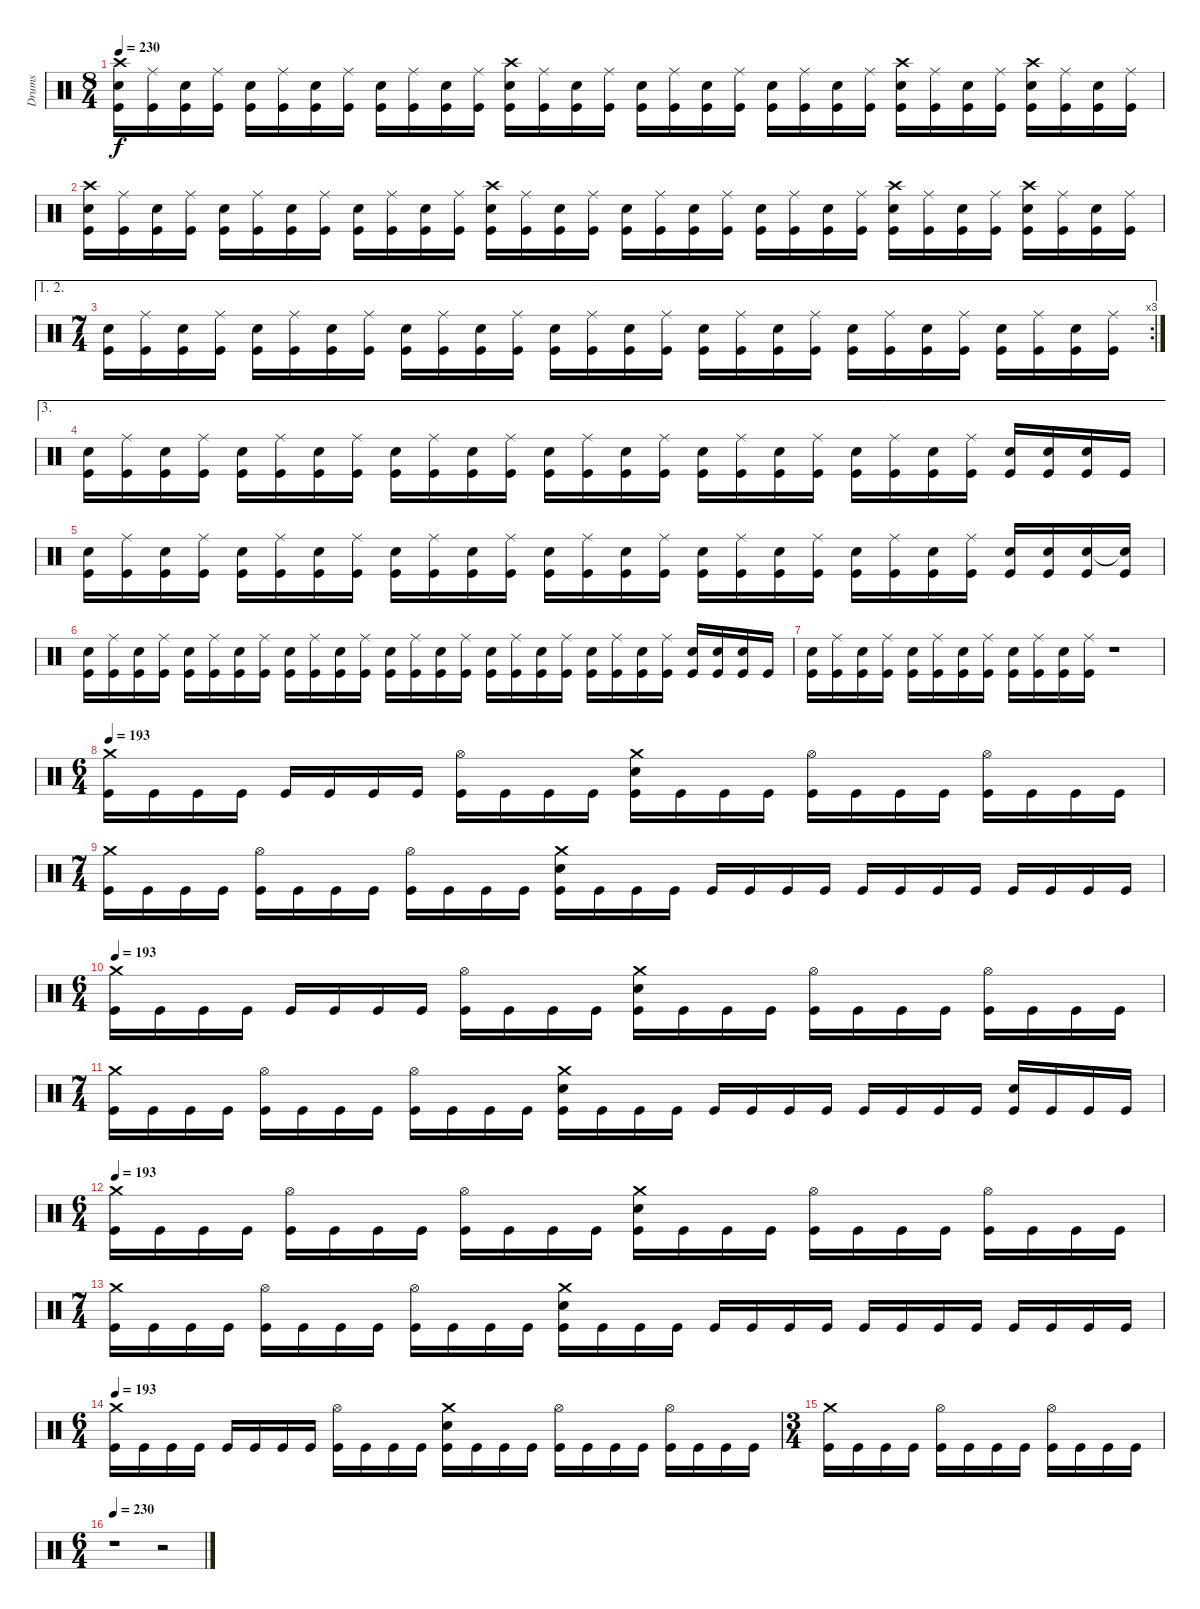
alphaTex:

\track ("Drums" "Drums") {instrument percussion}
\staff {score}
\articulation defaults
\ts (8 4)
\tempo 230
\clef neutral
\ks c
("Crash high (hit)" "Electric Snare (hit)" "Kick (hit)").16{dy f} ("Ride (middle)" "Kick (hit)").16 ("Electric Snare (hit)" "Kick (hit)").16 ("Ride (middle)" "Kick (hit)").16 ("Electric Snare (hit)" "Kick (hit)").16 ("Ride (middle)" "Kick (hit)").16 ("Electric Snare (hit)" "Kick (hit)").16 ("Ride (middle)" "Kick (hit)").16 ("Electric Snare (hit)" "Kick (hit)").16 ("Ride (middle)" "Kick (hit)").16 ("Electric Snare (hit)" "Kick (hit)").16 ("Ride (middle)" "Kick (hit)").16 ("Crash high (hit)" "Electric Snare (hit)" "Kick (hit)").16 ("Ride (middle)" "Kick (hit)").16 ("Electric Snare (hit)" "Kick (hit)").16 ("Ride (middle)" "Kick (hit)").16 ("Electric Snare (hit)" "Kick (hit)").16 ("Ride (middle)" "Kick (hit)").16 ("Electric Snare (hit)" "Kick (hit)").16 ("Ride (middle)" "Kick (hit)").16 ("Electric Snare (hit)" "Kick (hit)").16 ("Ride (middle)" "Kick (hit)").16 ("Electric Snare (hit)" "Kick (hit)").16 ("Ride (middle)" "Kick (hit)").16 ("Crash high (hit)" "Electric Snare (hit)" "Kick (hit)").16 ("Ride (middle)" "Kick (hit)").16 ("Electric Snare (hit)" "Kick (hit)").16 ("Ride (middle)" "Kick (hit)").16 ("Crash high (hit)" "Electric Snare (hit)" "Kick (hit)").16 ("Ride (middle)" "Kick (hit)").16 ("Electric Snare (hit)" "Kick (hit)").16 ("Ride (middle)" "Kick (hit)").16 |
("Crash high (hit)" "Electric Snare (hit)" "Kick (hit)").16 ("Ride (middle)" "Kick (hit)").16 ("Electric Snare (hit)" "Kick (hit)").16 ("Ride (middle)" "Kick (hit)").16 ("Electric Snare (hit)" "Kick (hit)").16 ("Ride (middle)" "Kick (hit)").16 ("Electric Snare (hit)" "Kick (hit)").16 ("Ride (middle)" "Kick (hit)").16 ("Electric Snare (hit)" "Kick (hit)").16 ("Ride (middle)" "Kick (hit)").16 ("Electric Snare (hit)" "Kick (hit)").16 ("Ride (middle)" "Kick (hit)").16 ("Crash high (hit)" "Electric Snare (hit)" "Kick (hit)").16 ("Ride (middle)" "Kick (hit)").16 ("Electric Snare (hit)" "Kick (hit)").16 ("Ride (middle)" "Kick (hit)").16 ("Electric Snare (hit)" "Kick (hit)").16 ("Ride (middle)" "Kick (hit)").16 ("Electric Snare (hit)" "Kick (hit)").16 ("Ride (middle)" "Kick (hit)").16 ("Electric Snare (hit)" "Kick (hit)").16 ("Ride (middle)" "Kick (hit)").16 ("Electric Snare (hit)" "Kick (hit)").16 ("Ride (middle)" "Kick (hit)").16 ("Crash high (hit)" "Electric Snare (hit)" "Kick (hit)").16 ("Ride (middle)" "Kick (hit)").16 ("Electric Snare (hit)" "Kick (hit)").16 ("Ride (middle)" "Kick (hit)").16 ("Crash high (hit)" "Electric Snare (hit)" "Kick (hit)").16 ("Ride (middle)" "Kick (hit)").16 ("Electric Snare (hit)" "Kick (hit)").16 ("Ride (middle)" "Kick (hit)").16 |
\ae (1 2)
\rc 3
\ts (7 4)
("Electric Snare (hit)" "Kick (hit)").16 ("Ride (middle)" "Kick (hit)").16 ("Electric Snare (hit)" "Kick (hit)").16 ("Ride (middle)" "Kick (hit)").16 ("Electric Snare (hit)" "Kick (hit)").16 ("Ride (middle)" "Kick (hit)").16 ("Electric Snare (hit)" "Kick (hit)").16 ("Ride (middle)" "Kick (hit)").16 ("Electric Snare (hit)" "Kick (hit)").16 ("Ride (middle)" "Kick (hit)").16 ("Electric Snare (hit)" "Kick (hit)").16 ("Ride (middle)" "Kick (hit)").16 ("Electric Snare (hit)" "Kick (hit)").16 ("Ride (middle)" "Kick (hit)").16 ("Electric Snare (hit)" "Kick (hit)").16 ("Ride (middle)" "Kick (hit)").16 ("Electric Snare (hit)" "Kick (hit)").16 ("Ride (middle)" "Kick (hit)").16 ("Electric Snare (hit)" "Kick (hit)").16 ("Ride (middle)" "Kick (hit)").16 ("Electric Snare (hit)" "Kick (hit)").16 ("Ride (middle)" "Kick (hit)").16 ("Electric Snare (hit)" "Kick (hit)").16 ("Ride (middle)" "Kick (hit)").16 ("Electric Snare (hit)" "Kick (hit)").16 ("Ride (middle)" "Kick (hit)").16 ("Electric Snare (hit)" "Kick (hit)").16 ("Ride (middle)" "Kick (hit)").16 |
\ae 3
("Electric Snare (hit)" "Kick (hit)").16 ("Ride (middle)" "Kick (hit)").16 ("Electric Snare (hit)" "Kick (hit)").16 ("Ride (middle)" "Kick (hit)").16 ("Electric Snare (hit)" "Kick (hit)").16 ("Ride (middle)" "Kick (hit)").16 ("Electric Snare (hit)" "Kick (hit)").16 ("Ride (middle)" "Kick (hit)").16 ("Electric Snare (hit)" "Kick (hit)").16 ("Ride (middle)" "Kick (hit)").16 ("Electric Snare (hit)" "Kick (hit)").16 ("Ride (middle)" "Kick (hit)").16 ("Electric Snare (hit)" "Kick (hit)").16 ("Ride (middle)" "Kick (hit)").16 ("Electric Snare (hit)" "Kick (hit)").16 ("Ride (middle)" "Kick (hit)").16 ("Electric Snare (hit)" "Kick (hit)").16 ("Ride (middle)" "Kick (hit)").16 ("Electric Snare (hit)" "Kick (hit)").16 ("Ride (middle)" "Kick (hit)").16 ("Electric Snare (hit)" "Kick (hit)").16 ("Ride (middle)" "Kick (hit)").16 ("Electric Snare (hit)" "Kick (hit)").16 ("Ride (middle)" "Kick (hit)").16 ("Electric Snare (hit)" "Kick (hit)").16 ("Electric Snare (hit)" "Kick (hit)").16 ("Electric Snare (hit)" "Kick (hit)").16 "Kick (hit)".16 |
("Electric Snare (hit)" "Kick (hit)").16 ("Ride (middle)" "Kick (hit)").16 ("Electric Snare (hit)" "Kick (hit)").16 ("Ride (middle)" "Kick (hit)").16 ("Electric Snare (hit)" "Kick (hit)").16 ("Ride (middle)" "Kick (hit)").16 ("Electric Snare (hit)" "Kick (hit)").16 ("Ride (middle)" "Kick (hit)").16 ("Electric Snare (hit)" "Kick (hit)").16 ("Ride (middle)" "Kick (hit)").16 ("Electric Snare (hit)" "Kick (hit)").16 ("Ride (middle)" "Kick (hit)").16 ("Electric Snare (hit)" "Kick (hit)").16 ("Ride (middle)" "Kick (hit)").16 ("Electric Snare (hit)" "Kick (hit)").16 ("Ride (middle)" "Kick (hit)").16 ("Electric Snare (hit)" "Kick (hit)").16 ("Ride (middle)" "Kick (hit)").16 ("Electric Snare (hit)" "Kick (hit)").16 ("Ride (middle)" "Kick (hit)").16 ("Electric Snare (hit)" "Kick (hit)").16 ("Ride (middle)" "Kick (hit)").16 ("Electric Snare (hit)" "Kick (hit)").16 ("Ride (middle)" "Kick (hit)").16 ("Electric Snare (hit)" "Kick (hit)").16 ("Electric Snare (hit)" "Kick (hit)").16 ("Electric Snare (hit)" "Kick (hit)").16 ("Electric Snare (hit)"{t} "Kick (hit)").16 |
("Electric Snare (hit)" "Kick (hit)").16 ("Ride (middle)" "Kick (hit)").16 ("Electric Snare (hit)" "Kick (hit)").16 ("Ride (middle)" "Kick (hit)").16 ("Electric Snare (hit)" "Kick (hit)").16 ("Ride (middle)" "Kick (hit)").16 ("Electric Snare (hit)" "Kick (hit)").16 ("Ride (middle)" "Kick (hit)").16 ("Electric Snare (hit)" "Kick (hit)").16 ("Ride (middle)" "Kick (hit)").16 ("Electric Snare (hit)" "Kick (hit)").16 ("Ride (middle)" "Kick (hit)").16 ("Electric Snare (hit)" "Kick (hit)").16 ("Ride (middle)" "Kick (hit)").16 ("Electric Snare (hit)" "Kick (hit)").16 ("Ride (middle)" "Kick (hit)").16 ("Electric Snare (hit)" "Kick (hit)").16 ("Ride (middle)" "Kick (hit)").16 ("Electric Snare (hit)" "Kick (hit)").16 ("Ride (middle)" "Kick (hit)").16 ("Electric Snare (hit)" "Kick (hit)").16 ("Ride (middle)" "Kick (hit)").16 ("Electric Snare (hit)" "Kick (hit)").16 ("Ride (middle)" "Kick (hit)").16 ("Electric Snare (hit)" "Kick (hit)").16 ("Electric Snare (hit)" "Kick (hit)").16 ("Electric Snare (hit)" "Kick (hit)").16 "Kick (hit)".16 |
("Electric Snare (hit)" "Kick (hit)").16 ("Ride (middle)" "Kick (hit)").16 ("Electric Snare (hit)" "Kick (hit)").16 ("Ride (middle)" "Kick (hit)").16 ("Electric Snare (hit)" "Kick (hit)").16 ("Ride (middle)" "Kick (hit)").16 ("Electric Snare (hit)" "Kick (hit)").16 ("Ride (middle)" "Kick (hit)").16 ("Electric Snare (hit)" "Kick (hit)").16 ("Ride (middle)" "Kick (hit)").16 ("Electric Snare (hit)" "Kick (hit)").16 ("Ride (middle)" "Kick (hit)").16 r.1 |
\ts (6 4)
\tempo 193
("Crash medium (hit)" "Kick (hit)").16 "Kick (hit)".16 "Kick (hit)".16 "Kick (hit)".16 "Kick (hit)".16 "Kick (hit)".16 "Kick (hit)".16 "Kick (hit)".16 ("Hi-Hat (open)" "Kick (hit)").16 "Kick (hit)".16 "Kick (hit)".16 "Kick (hit)".16 ("Crash medium (hit)" "Electric Snare (hit)" "Kick (hit)").16 "Kick (hit)".16 "Kick (hit)".16 "Kick (hit)".16 ("Hi-Hat (open)" "Kick (hit)").16 "Kick (hit)".16 "Kick (hit)".16 "Kick (hit)".16 ("Hi-Hat (open)" "Kick (hit)").16 "Kick (hit)".16 "Kick (hit)".16 "Kick (hit)".16 |
\ts (7 4)
("Crash medium (hit)" "Kick (hit)").16 "Kick (hit)".16 "Kick (hit)".16 "Kick (hit)".16 ("Hi-Hat (open)" "Kick (hit)").16 "Kick (hit)".16 "Kick (hit)".16 "Kick (hit)".16 ("Hi-Hat (open)" "Kick (hit)").16 "Kick (hit)".16 "Kick (hit)".16 "Kick (hit)".16 ("Crash medium (hit)" "Electric Snare (hit)" "Kick (hit)").16 "Kick (hit)".16 "Kick (hit)".16 "Kick (hit)".16 "Kick (hit)".16 "Kick (hit)".16 "Kick (hit)".16 "Kick (hit)".16 "Kick (hit)".16 "Kick (hit)".16 "Kick (hit)".16 "Kick (hit)".16 "Kick (hit)".16 "Kick (hit)".16 "Kick (hit)".16 "Kick (hit)".16 |
\ts (6 4)
\tempo 193
("Crash medium (hit)" "Kick (hit)").16 "Kick (hit)".16 "Kick (hit)".16 "Kick (hit)".16 "Kick (hit)".16 "Kick (hit)".16 "Kick (hit)".16 "Kick (hit)".16 ("Hi-Hat (open)" "Kick (hit)").16 "Kick (hit)".16 "Kick (hit)".16 "Kick (hit)".16 ("Crash medium (hit)" "Electric Snare (hit)" "Kick (hit)").16 "Kick (hit)".16 "Kick (hit)".16 "Kick (hit)".16 ("Hi-Hat (open)" "Kick (hit)").16 "Kick (hit)".16 "Kick (hit)".16 "Kick (hit)".16 ("Hi-Hat (open)" "Kick (hit)").16 "Kick (hit)".16 "Kick (hit)".16 "Kick (hit)".16 |
\ts (7 4)
("Crash medium (hit)" "Kick (hit)").16 "Kick (hit)".16 "Kick (hit)".16 "Kick (hit)".16 ("Hi-Hat (open)" "Kick (hit)").16 "Kick (hit)".16 "Kick (hit)".16 "Kick (hit)".16 ("Hi-Hat (open)" "Kick (hit)").16 "Kick (hit)".16 "Kick (hit)".16 "Kick (hit)".16 ("Crash medium (hit)" "Electric Snare (hit)" "Kick (hit)").16 "Kick (hit)".16 "Kick (hit)".16 "Kick (hit)".16 "Kick (hit)".16 "Kick (hit)".16 "Kick (hit)".16 "Kick (hit)".16 "Kick (hit)".16 "Kick (hit)".16 "Kick (hit)".16 "Kick (hit)".16 ("Electric Snare (hit)" "Kick (hit)").16 "Kick (hit)".16 "Kick (hit)".16 "Kick (hit)".16 |
\ts (6 4)
\tempo 193
("Crash medium (hit)" "Kick (hit)").16 "Kick (hit)".16 "Kick (hit)".16 "Kick (hit)".16 ("Hi-Hat (open)" "Kick (hit)").16 "Kick (hit)".16 "Kick (hit)".16 "Kick (hit)".16 ("Hi-Hat (open)" "Kick (hit)").16 "Kick (hit)".16 "Kick (hit)".16 "Kick (hit)".16 ("Crash medium (hit)" "Electric Snare (hit)" "Kick (hit)").16 "Kick (hit)".16 "Kick (hit)".16 "Kick (hit)".16 ("Hi-Hat (open)" "Kick (hit)").16 "Kick (hit)".16 "Kick (hit)".16 "Kick (hit)".16 ("Hi-Hat (open)" "Kick (hit)").16 "Kick (hit)".16 "Kick (hit)".16 "Kick (hit)".16 |
\ts (7 4)
("Crash medium (hit)" "Kick (hit)").16 "Kick (hit)".16 "Kick (hit)".16 "Kick (hit)".16 ("Hi-Hat (open)" "Kick (hit)").16 "Kick (hit)".16 "Kick (hit)".16 "Kick (hit)".16 ("Hi-Hat (open)" "Kick (hit)").16 "Kick (hit)".16 "Kick (hit)".16 "Kick (hit)".16 ("Crash medium (hit)" "Electric Snare (hit)" "Kick (hit)").16 "Kick (hit)".16 "Kick (hit)".16 "Kick (hit)".16 "Kick (hit)".16 "Kick (hit)".16 "Kick (hit)".16 "Kick (hit)".16 "Kick (hit)".16 "Kick (hit)".16 "Kick (hit)".16 "Kick (hit)".16 "Kick (hit)".16 "Kick (hit)".16 "Kick (hit)".16 "Kick (hit)".16 |
\ts (6 4)
\tempo 193
("Crash medium (hit)" "Kick (hit)").16 "Kick (hit)".16 "Kick (hit)".16 "Kick (hit)".16 "Kick (hit)".16 "Kick (hit)".16 "Kick (hit)".16 "Kick (hit)".16 ("Hi-Hat (open)" "Kick (hit)").16 "Kick (hit)".16 "Kick (hit)".16 "Kick (hit)".16 ("Crash medium (hit)" "Electric Snare (hit)" "Kick (hit)").16 "Kick (hit)".16 "Kick (hit)".16 "Kick (hit)".16 ("Hi-Hat (open)" "Kick (hit)").16 "Kick (hit)".16 "Kick (hit)".16 "Kick (hit)".16 ("Hi-Hat (open)" "Kick (hit)").16 "Kick (hit)".16 "Kick (hit)".16 "Kick (hit)".16 |
\ts (3 4)
("Crash medium (hit)" "Kick (hit)").16 "Kick (hit)".16 "Kick (hit)".16 "Kick (hit)".16 ("Hi-Hat (open)" "Kick (hit)").16 "Kick (hit)".16 "Kick (hit)".16 "Kick (hit)".16 ("Hi-Hat (open)" "Kick (hit)").16 "Kick (hit)".16 "Kick (hit)".16 "Kick (hit)".16 |
\ts (6 4)
\tempo 230
r.1 r.2
